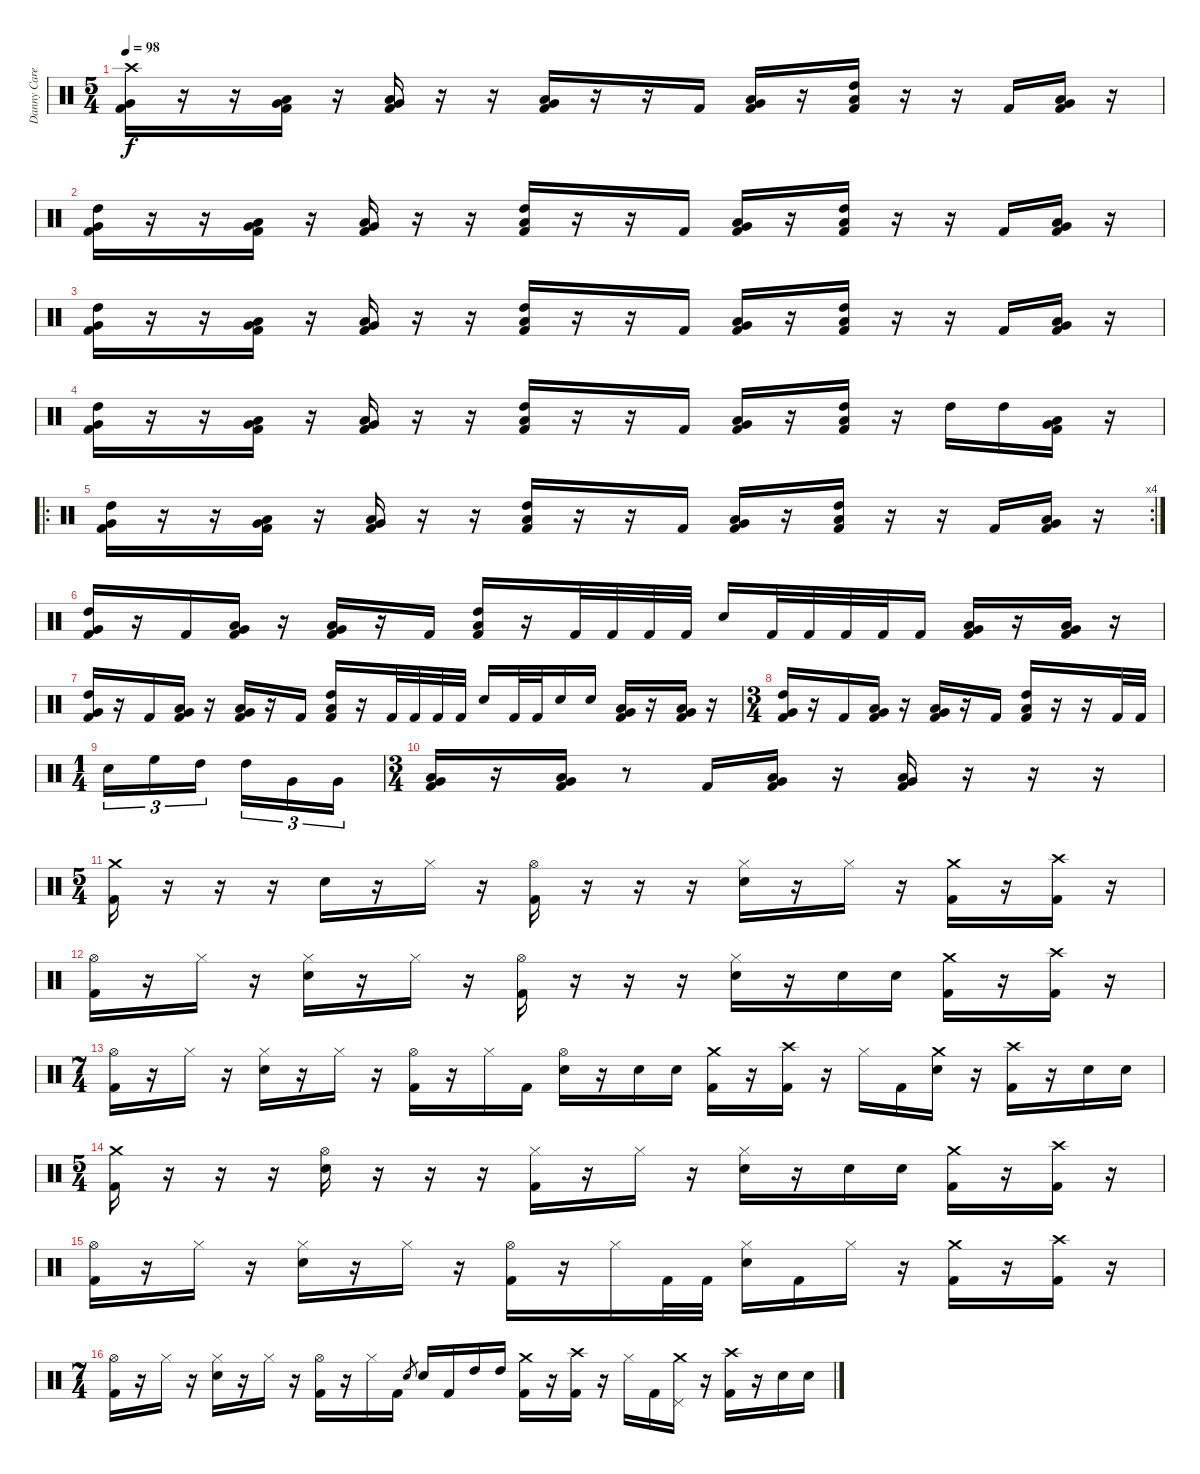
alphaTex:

\track ("Danny Carey" "Danny Care") {instrument percussion}
\staff {score}
\articulation defaults
\ts (5 4)
\tempo 98
\clef neutral
\ks c
("Crash high (hit)" "Very Low Tom (hit)" "Kick (hit) 2").16{dy f} r.16 r.16 ("Very Low Tom (hit)" "Low Floor Tom (hit)" "Kick (hit) 2").16 r.16 ("Very Low Tom (hit)" "Low Floor Tom (hit)" "Kick (hit) 2").16 r.16 r.16 ("Very Low Tom (hit)" "Low Floor Tom (hit)" "Kick (hit) 2").16 r.16 r.16 "Kick (hit) 2".16 ("Very Low Tom (hit)" "Low Floor Tom (hit)" "Kick (hit) 2").16 r.16 ("High Tom (hit)" "Low Floor Tom (hit)" "Kick (hit) 2").16 r.16 r.16 "Kick (hit) 2".16 ("Very Low Tom (hit)" "Low Floor Tom (hit)" "Kick (hit) 2").16 r.16 |
("High Tom (hit)" "Very Low Tom (hit)" "Kick (hit) 2").16 r.16 r.16 ("Very Low Tom (hit)" "Low Floor Tom (hit)" "Kick (hit) 2").16 r.16 ("Very Low Tom (hit)" "Low Floor Tom (hit)" "Kick (hit) 2").16 r.16 r.16 ("High Tom (hit)" "Low Floor Tom (hit)" "Kick (hit) 2").16 r.16 r.16 "Kick (hit) 2".16 ("Very Low Tom (hit)" "Low Floor Tom (hit)" "Kick (hit) 2").16 r.16 ("High Tom (hit)" "Low Floor Tom (hit)" "Kick (hit) 2").16 r.16 r.16 "Kick (hit) 2".16 ("Very Low Tom (hit)" "Low Floor Tom (hit)" "Kick (hit) 2").16 r.16 |
("High Tom (hit)" "Very Low Tom (hit)" "Kick (hit) 2").16 r.16 r.16 ("Very Low Tom (hit)" "Low Floor Tom (hit)" "Kick (hit) 2").16 r.16 ("Very Low Tom (hit)" "Low Floor Tom (hit)" "Kick (hit) 2").16 r.16 r.16 ("High Tom (hit)" "Low Floor Tom (hit)" "Kick (hit) 2").16 r.16 r.16 "Kick (hit) 2".16 ("Very Low Tom (hit)" "Low Floor Tom (hit)" "Kick (hit) 2").16 r.16 ("High Tom (hit)" "Low Floor Tom (hit)" "Kick (hit) 2").16 r.16 r.16 "Kick (hit) 2".16 ("Very Low Tom (hit)" "Low Floor Tom (hit)" "Kick (hit) 2").16 r.16 |
("High Tom (hit)" "Very Low Tom (hit)" "Kick (hit) 2").16 r.16 r.16 ("Very Low Tom (hit)" "Low Floor Tom (hit)" "Kick (hit) 2").16 r.16 ("Very Low Tom (hit)" "Low Floor Tom (hit)" "Kick (hit) 2").16 r.16 r.16 ("High Tom (hit)" "Low Floor Tom (hit)" "Kick (hit) 2").16 r.16 r.16 "Kick (hit) 2".16 ("Very Low Tom (hit)" "Low Floor Tom (hit)" "Kick (hit) 2").16 r.16 ("High Tom (hit)" "Low Floor Tom (hit)" "Kick (hit) 2").16 r.16 "High Tom (hit)".16 "High Tom (hit)".16 ("Very Low Tom (hit)" "Low Floor Tom (hit)" "Kick (hit) 2").16 r.16 |
\ro
\rc 4
("High Tom (hit)" "Very Low Tom (hit)" "Kick (hit) 2").16 r.16 r.16 ("Very Low Tom (hit)" "Low Floor Tom (hit)" "Kick (hit) 2").16 r.16 ("Very Low Tom (hit)" "Low Floor Tom (hit)" "Kick (hit) 2").16 r.16 r.16 ("High Tom (hit)" "Low Floor Tom (hit)" "Kick (hit) 2").16 r.16 r.16 "Kick (hit) 2".16 ("Very Low Tom (hit)" "Low Floor Tom (hit)" "Kick (hit) 2").16 r.16 ("High Tom (hit)" "Low Floor Tom (hit)" "Kick (hit) 2").16 r.16 r.16 "Kick (hit) 2".16 ("Very Low Tom (hit)" "Low Floor Tom (hit)" "Kick (hit) 2").16 r.16 |
("High Tom (hit)" "Very Low Tom (hit)" "Kick (hit) 2").16 r.16 "Kick (hit) 2".16 ("Very Low Tom (hit)" "Low Floor Tom (hit)" "Kick (hit) 2").16 r.16 ("Very Low Tom (hit)" "Low Floor Tom (hit)" "Kick (hit) 2").16 r.16 "Kick (hit) 2".16 ("High Tom (hit)" "Low Floor Tom (hit)" "Kick (hit) 2").16 r.16 "Kick (hit) 2".32 "Kick (hit) 2".32 "Kick (hit) 2".32 "Kick (hit) 2".32 "Electric Snare (hit)".16 "Kick (hit) 2".32 "Kick (hit) 2".32 "Kick (hit) 2".32 "Kick (hit) 2".32 "Kick (hit) 2".16 ("Very Low Tom (hit)" "Low Floor Tom (hit)" "Kick (hit) 2").16 r.16 ("Very Low Tom (hit)" "Low Floor Tom (hit)" "Kick (hit) 2").16 r.16 |
("High Tom (hit)" "Very Low Tom (hit)" "Kick (hit) 2").16 r.16 "Kick (hit) 2".16 ("Very Low Tom (hit)" "Low Floor Tom (hit)" "Kick (hit) 2").16 r.16 ("Very Low Tom (hit)" "Low Floor Tom (hit)" "Kick (hit) 2").16 r.16 "Kick (hit) 2".16 ("High Tom (hit)" "Low Floor Tom (hit)" "Kick (hit) 2").16 r.16 "Kick (hit) 2".32 "Kick (hit) 2".32 "Kick (hit) 2".32 "Kick (hit) 2".32 "Electric Snare (hit)".16 "Kick (hit) 2".32 "Kick (hit) 2".32 "Electric Snare (hit)".16 "Electric Snare (hit)".16 ("Very Low Tom (hit)" "Low Floor Tom (hit)" "Kick (hit) 2").16 r.16 ("Very Low Tom (hit)" "Low Floor Tom (hit)" "Kick (hit) 2").16 r.16 |
\ts (3 4)
("High Tom (hit)" "Very Low Tom (hit)" "Kick (hit) 2").16 r.16 "Kick (hit) 2".16 ("Very Low Tom (hit)" "Low Floor Tom (hit)" "Kick (hit) 2").16 r.16 ("Very Low Tom (hit)" "Low Floor Tom (hit)" "Kick (hit) 2").16 r.16 "Kick (hit) 2".16 ("High Tom (hit)" "Low Floor Tom (hit)" "Kick (hit) 2").16 r.16 r.16 "Kick (hit) 2".32 "Kick (hit) 2".32 |
\ts (1 4)
"Electric Snare (hit)".16{tu (3 2)} "High Floor Tom (hit)".16{tu (3 2)} "High Tom (hit)".16{tu (3 2) beam splitsecondary} "High Tom (hit)".16{tu (3 2)} "Very Low Tom (hit)".16{tu (3 2)} "Very Low Tom (hit)".16{tu (3 2)} |
\ts (3 4)
("Very Low Tom (hit)" "Low Floor Tom (hit)" "Kick (hit) 2").16 r.16 ("Very Low Tom (hit)" "Low Floor Tom (hit)" "Kick (hit) 2").16 r.8 "Kick (hit) 2".16 ("Very Low Tom (hit)" "Low Floor Tom (hit)" "Kick (hit) 2").16 r.16 ("Very Low Tom (hit)" "Low Floor Tom (hit)" "Kick (hit) 2").16 r.16 r.16 r.16 |
\ts (5 4)
("Crash medium (hit)" "Kick (hit) 2").16 r.16 r.16 r.16 "Electric Snare (hit)".16 r.16 "Hi-Hat (closed)".16 r.16 ("Hi-Hat (open)" "Kick (hit) 2").16 r.16 r.16 r.16 ("Hi-Hat (closed)" "Electric Snare (hit)").16 r.16 "Hi-Hat (closed)".16 r.16 ("Crash medium (hit)" "Kick (hit) 2").16 r.16 ("Crash high (hit)" "Kick (hit) 2").16 r.16 |
("Hi-Hat (open)" "Kick (hit) 2").16 r.16 "Hi-Hat (closed)".16 r.16 ("Hi-Hat (closed)" "Electric Snare (hit)").16 r.16 "Hi-Hat (closed)".16 r.16 ("Hi-Hat (open)" "Kick (hit) 2").16 r.16 r.16 r.16 ("Hi-Hat (closed)" "Electric Snare (hit)").16 r.16 "Electric Snare (hit)".16 "Electric Snare (hit)".16 ("Crash medium (hit)" "Kick (hit) 2").16 r.16 ("Crash high (hit)" "Kick (hit) 2").16 r.16 |
\ts (7 4)
("Hi-Hat (open)" "Kick (hit) 2").16 r.16 "Hi-Hat (closed)".16 r.16 ("Hi-Hat (closed)" "Electric Snare (hit)").16 r.16 "Hi-Hat (closed)".16 r.16 ("Hi-Hat (open)" "Kick (hit) 2").16 r.16 "Hi-Hat (closed)".16 "Kick (hit) 2".16 ("Hi-Hat (open)" "Electric Snare (hit)").16 r.16 "Electric Snare (hit)".16 "Electric Snare (hit)".16 ("Crash medium (hit)" "Kick (hit) 2").16 r.16 ("Crash high (hit)" "Kick (hit) 2").16 r.16 "Hi-Hat (closed)".16 "Kick (hit) 2".16 ("Crash medium (hit)" "Electric Snare (hit)").16 r.16 ("Crash high (hit)" "Kick (hit) 2").16 r.16 "Electric Snare (hit)".16 "Electric Snare (hit)".16 |
\ts (5 4)
("Crash medium (hit)" "Kick (hit) 2").16 r.16 r.16 r.16 ("Hi-Hat (open)" "Electric Snare (hit)").16 r.16 r.16 r.16 ("Hi-Hat (closed)" "Kick (hit) 2").16 r.16 "Hi-Hat (closed)".16 r.16 ("Hi-Hat (closed)" "Electric Snare (hit)").16 r.16 "Electric Snare (hit)".16 "Electric Snare (hit)".16 ("Crash medium (hit)" "Kick (hit) 2").16 r.16 ("Crash high (hit)" "Kick (hit) 2").16 r.16 |
("Hi-Hat (open)" "Kick (hit) 2").16 r.16 "Hi-Hat (closed)".16 r.16 ("Hi-Hat (closed)" "Electric Snare (hit)").16 r.16 "Hi-Hat (closed)".16 r.16 ("Hi-Hat (open)" "Kick (hit) 2").16 r.16 "Hi-Hat (closed)".16 "Kick (hit) 2".32 "Kick (hit) 2".32 ("Hi-Hat (closed)" "Electric Snare (hit)").16 "Kick (hit) 2".16 "Hi-Hat (closed)".16 r.16 ("Crash medium (hit)" "Kick (hit) 2").16 r.16 ("Crash high (hit)" "Kick (hit) 2").16 r.16 |
\ts (7 4)
("Hi-Hat (open)" "Kick (hit) 2").16 r.16 "Hi-Hat (closed)".16 r.16 ("Hi-Hat (closed)" "Electric Snare (hit)").16 r.16 "Hi-Hat (closed)".16 r.16 ("Hi-Hat (open)" "Kick (hit) 2").16 r.16 "Hi-Hat (closed)".16 "Kick (hit) 2".16 "Electric Snare (hit)".8{gr} "Electric Snare (hit)".16 "Kick (hit) 2".16 "High Tom (hit)".16 "High Tom (hit)".16 ("Crash medium (hit)" "Kick (hit) 2").16 r.16 ("Crash high (hit)" "Kick (hit) 2").16 r.16 "Hi-Hat (closed)".16 "Kick (hit) 2".16 ("Crash medium (hit)" "Pedal Hi-Hat (hit)").16 r.16 ("Crash high (hit)" "Kick (hit) 2").16 r.16 "Electric Snare (hit)".16 "Electric Snare (hit)".16
